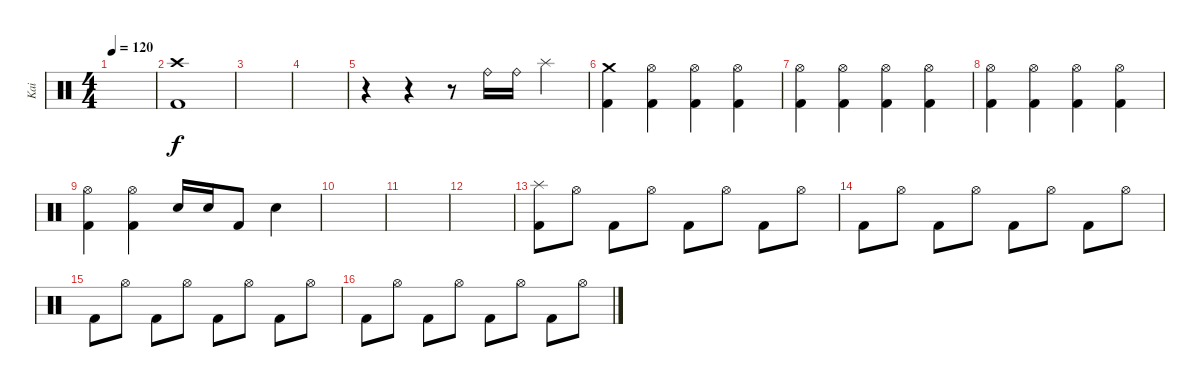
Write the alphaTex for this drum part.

\track ("Kai" "Kai") {instrument percussion}
\staff {score}
\articulation defaults
\ts (4 4)
\tempo 120
\clef neutral
\ks c
|
("Crash high (hit)" "Kick (hit) 2").1 |
|
|
r.4 r.4 r.8 "Ride (bell)".16 "Ride (bell)".16 "Splash (hit)".4 |
("Crash medium (hit)" "Kick (hit) 2").4 ("Hi-Hat (open)" "Kick (hit) 2").4 ("Hi-Hat (open)" "Kick (hit) 2").4 ("Hi-Hat (open)" "Kick (hit) 2").4 |
("Hi-Hat (open)" "Kick (hit) 2").4 ("Hi-Hat (open)" "Kick (hit) 2").4 ("Hi-Hat (open)" "Kick (hit) 2").4 ("Hi-Hat (open)" "Kick (hit) 2").4 |
("Hi-Hat (open)" "Kick (hit) 2").4 ("Hi-Hat (open)" "Kick (hit) 2").4 ("Hi-Hat (open)" "Kick (hit) 2").4 ("Hi-Hat (open)" "Kick (hit) 2").4 |
("Hi-Hat (open)" "Kick (hit) 2").4 ("Hi-Hat (open)" "Kick (hit) 2").4 "Electric Snare (hit)".16 "Electric Snare (hit)".16 "Kick (hit) 2".8 "Electric Snare (hit)".4 |
|
|
|
("Splash (hit)" "Kick (hit) 2").8 "Hi-Hat (open)".8 "Kick (hit) 2".8 "Hi-Hat (open)".8 "Kick (hit) 2".8 "Hi-Hat (open)".8 "Kick (hit) 2".8 "Hi-Hat (open)".8 |
"Kick (hit) 2".8 "Hi-Hat (open)".8 "Kick (hit) 2".8 "Hi-Hat (open)".8 "Kick (hit) 2".8 "Hi-Hat (open)".8 "Kick (hit) 2".8 "Hi-Hat (open)".8 |
"Kick (hit) 2".8 "Hi-Hat (open)".8 "Kick (hit) 2".8 "Hi-Hat (open)".8 "Kick (hit) 2".8 "Hi-Hat (open)".8 "Kick (hit) 2".8 "Hi-Hat (open)".8 |
"Kick (hit) 2".8 "Hi-Hat (open)".8 "Kick (hit) 2".8 "Hi-Hat (open)".8 "Kick (hit) 2".8 "Hi-Hat (open)".8 "Kick (hit) 2".8 "Hi-Hat (open)".8
